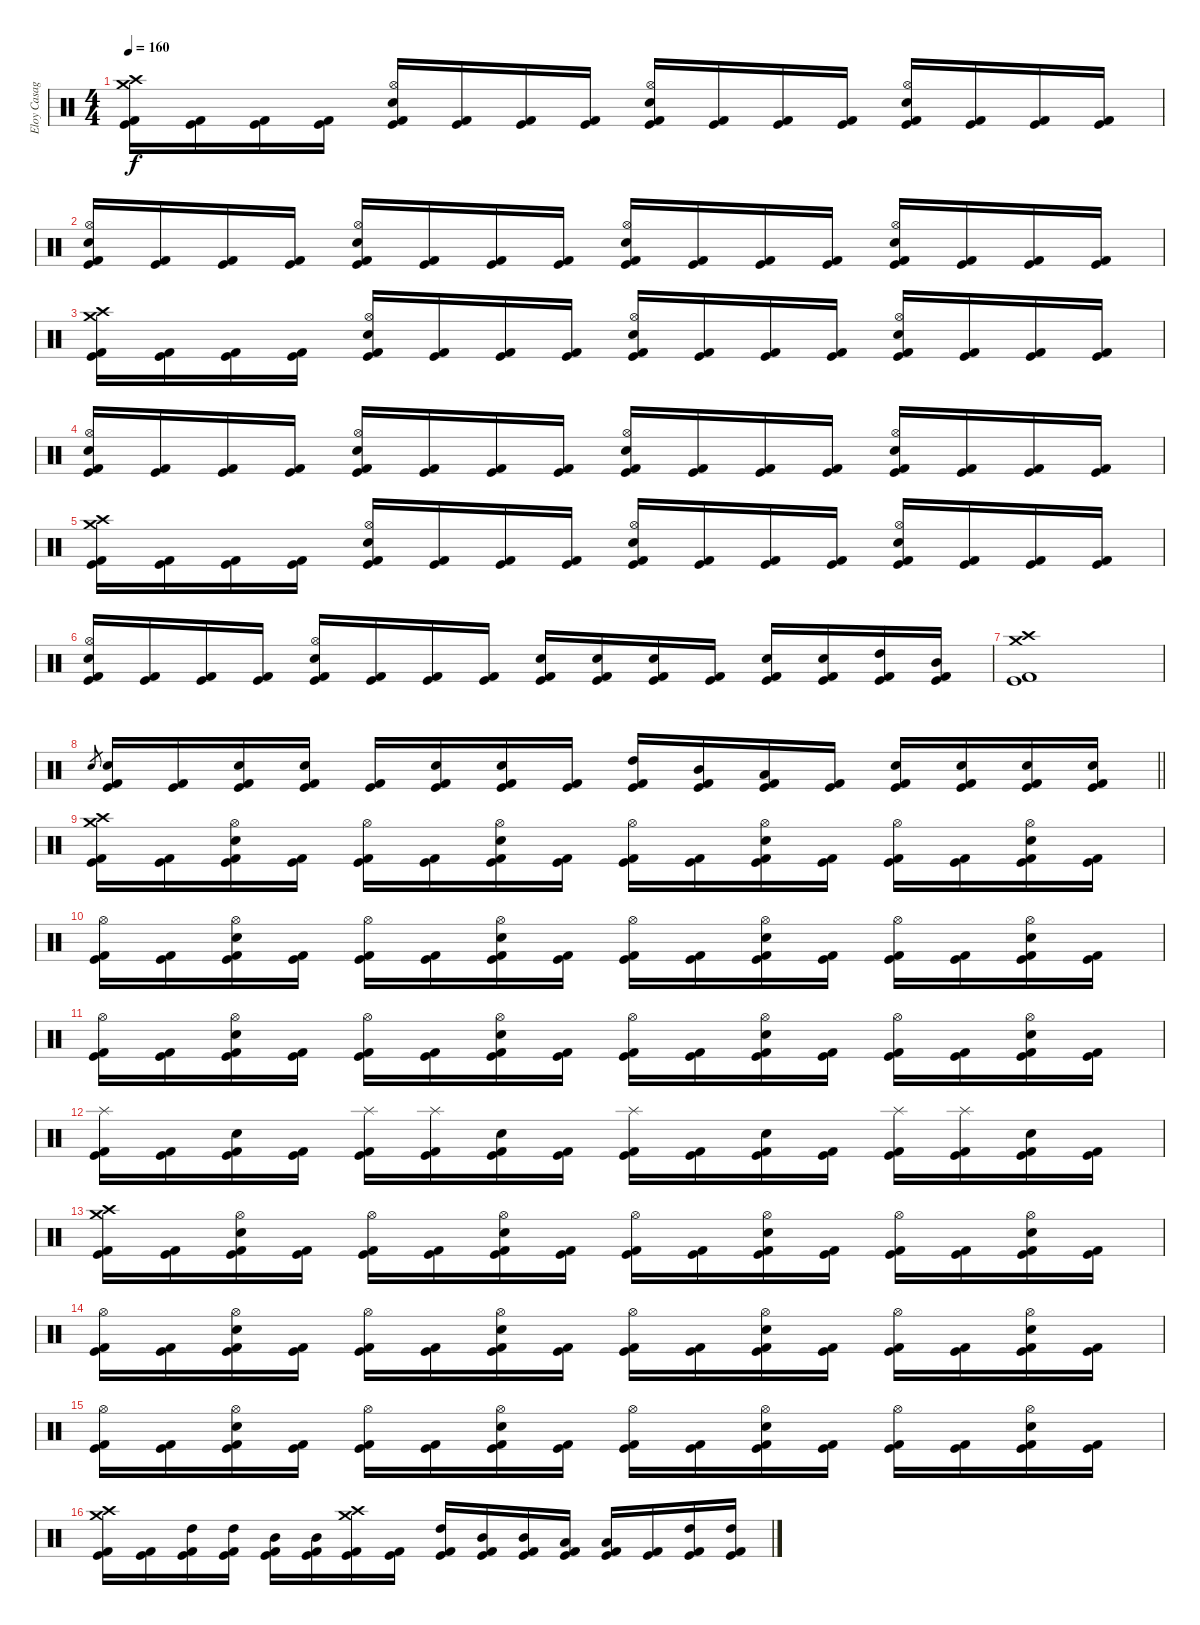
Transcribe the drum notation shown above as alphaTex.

\track ("Eloy Casagrande" "Eloy Casag") {instrument percussion}
\staff {score}
\articulation defaults
\ts (4 4)
\tempo 160
\clef neutral
\ks c
("Crash medium (hit)" "Crash high (hit)" "Kick (hit) 2" "Kick (hit)").16{dy f} ("Kick (hit) 2" "Kick (hit)").16 ("Kick (hit) 2" "Kick (hit)").16 ("Kick (hit) 2" "Kick (hit)").16 ("Hi-Hat (open)" "Electric Snare (hit)" "Kick (hit) 2" "Kick (hit)").16 ("Kick (hit) 2" "Kick (hit)").16 ("Kick (hit) 2" "Kick (hit)").16 ("Kick (hit) 2" "Kick (hit)").16 ("Hi-Hat (open)" "Electric Snare (hit)" "Kick (hit) 2" "Kick (hit)").16 ("Kick (hit) 2" "Kick (hit)").16 ("Kick (hit) 2" "Kick (hit)").16 ("Kick (hit) 2" "Kick (hit)").16 ("Hi-Hat (open)" "Electric Snare (hit)" "Kick (hit) 2" "Kick (hit)").16 ("Kick (hit) 2" "Kick (hit)").16 ("Kick (hit) 2" "Kick (hit)").16 ("Kick (hit) 2" "Kick (hit)").16 |
("Hi-Hat (open)" "Electric Snare (hit)" "Kick (hit) 2" "Kick (hit)").16 ("Kick (hit) 2" "Kick (hit)").16 ("Kick (hit) 2" "Kick (hit)").16 ("Kick (hit) 2" "Kick (hit)").16 ("Hi-Hat (open)" "Electric Snare (hit)" "Kick (hit) 2" "Kick (hit)").16 ("Kick (hit) 2" "Kick (hit)").16 ("Kick (hit) 2" "Kick (hit)").16 ("Kick (hit) 2" "Kick (hit)").16 ("Hi-Hat (open)" "Electric Snare (hit)" "Kick (hit) 2" "Kick (hit)").16 ("Kick (hit) 2" "Kick (hit)").16 ("Kick (hit) 2" "Kick (hit)").16 ("Kick (hit) 2" "Kick (hit)").16 ("Hi-Hat (open)" "Electric Snare (hit)" "Kick (hit) 2" "Kick (hit)").16 ("Kick (hit) 2" "Kick (hit)").16 ("Kick (hit) 2" "Kick (hit)").16 ("Kick (hit) 2" "Kick (hit)").16 |
("Crash medium (hit)" "Crash high (hit)" "Kick (hit) 2" "Kick (hit)").16 ("Kick (hit) 2" "Kick (hit)").16 ("Kick (hit) 2" "Kick (hit)").16 ("Kick (hit) 2" "Kick (hit)").16 ("Hi-Hat (open)" "Electric Snare (hit)" "Kick (hit) 2" "Kick (hit)").16 ("Kick (hit) 2" "Kick (hit)").16 ("Kick (hit) 2" "Kick (hit)").16 ("Kick (hit) 2" "Kick (hit)").16 ("Hi-Hat (open)" "Electric Snare (hit)" "Kick (hit) 2" "Kick (hit)").16 ("Kick (hit) 2" "Kick (hit)").16 ("Kick (hit) 2" "Kick (hit)").16 ("Kick (hit) 2" "Kick (hit)").16 ("Hi-Hat (open)" "Electric Snare (hit)" "Kick (hit) 2" "Kick (hit)").16 ("Kick (hit) 2" "Kick (hit)").16 ("Kick (hit) 2" "Kick (hit)").16 ("Kick (hit) 2" "Kick (hit)").16 |
("Hi-Hat (open)" "Electric Snare (hit)" "Kick (hit) 2" "Kick (hit)").16 ("Kick (hit) 2" "Kick (hit)").16 ("Kick (hit) 2" "Kick (hit)").16 ("Kick (hit) 2" "Kick (hit)").16 ("Hi-Hat (open)" "Electric Snare (hit)" "Kick (hit) 2" "Kick (hit)").16 ("Kick (hit) 2" "Kick (hit)").16 ("Kick (hit) 2" "Kick (hit)").16 ("Kick (hit) 2" "Kick (hit)").16 ("Hi-Hat (open)" "Electric Snare (hit)" "Kick (hit) 2" "Kick (hit)").16 ("Kick (hit) 2" "Kick (hit)").16 ("Kick (hit) 2" "Kick (hit)").16 ("Kick (hit) 2" "Kick (hit)").16 ("Hi-Hat (open)" "Electric Snare (hit)" "Kick (hit) 2" "Kick (hit)").16 ("Kick (hit) 2" "Kick (hit)").16 ("Kick (hit) 2" "Kick (hit)").16 ("Kick (hit) 2" "Kick (hit)").16 |
("Crash medium (hit)" "Crash high (hit)" "Kick (hit) 2" "Kick (hit)").16 ("Kick (hit) 2" "Kick (hit)").16 ("Kick (hit) 2" "Kick (hit)").16 ("Kick (hit) 2" "Kick (hit)").16 ("Hi-Hat (open)" "Electric Snare (hit)" "Kick (hit) 2" "Kick (hit)").16 ("Kick (hit) 2" "Kick (hit)").16 ("Kick (hit) 2" "Kick (hit)").16 ("Kick (hit) 2" "Kick (hit)").16 ("Hi-Hat (open)" "Electric Snare (hit)" "Kick (hit) 2" "Kick (hit)").16 ("Kick (hit) 2" "Kick (hit)").16 ("Kick (hit) 2" "Kick (hit)").16 ("Kick (hit) 2" "Kick (hit)").16 ("Hi-Hat (open)" "Electric Snare (hit)" "Kick (hit) 2" "Kick (hit)").16 ("Kick (hit) 2" "Kick (hit)").16 ("Kick (hit) 2" "Kick (hit)").16 ("Kick (hit) 2" "Kick (hit)").16 |
("Hi-Hat (open)" "Electric Snare (hit)" "Kick (hit) 2" "Kick (hit)").16 ("Kick (hit) 2" "Kick (hit)").16 ("Kick (hit) 2" "Kick (hit)").16 ("Kick (hit) 2" "Kick (hit)").16 ("Hi-Hat (open)" "Electric Snare (hit)" "Kick (hit) 2" "Kick (hit)").16 ("Kick (hit) 2" "Kick (hit)").16 ("Kick (hit) 2" "Kick (hit)").16 ("Kick (hit) 2" "Kick (hit)").16 ("Electric Snare (hit)" "Kick (hit) 2" "Kick (hit)").16 ("Electric Snare (hit)" "Kick (hit) 2" "Kick (hit)").16 ("Electric Snare (hit)" "Kick (hit) 2" "Kick (hit)").16 ("Kick (hit) 2" "Kick (hit)").16 ("Electric Snare (hit)" "Kick (hit) 2" "Kick (hit)").16 ("Electric Snare (hit)" "Kick (hit) 2" "Kick (hit)").16 ("High Tom (hit)" "Kick (hit) 2" "Kick (hit)").16 ("Mid Tom (hit)" "Kick (hit) 2" "Kick (hit)").16 |
("Crash medium (hit)" "Crash high (hit)" "Kick (hit) 2" "Kick (hit)").1 |
\barLineRight lightlight "Electric Snare (hit)".8{gr}
("Electric Snare (hit)" "Kick (hit) 2" "Kick (hit)").16 ("Kick (hit) 2" "Kick (hit)").16 ("Electric Snare (hit)" "Kick (hit) 2" "Kick (hit)").16 ("Electric Snare (hit)" "Kick (hit) 2" "Kick (hit)").16 ("Kick (hit) 2" "Kick (hit)").16 ("Electric Snare (hit)" "Kick (hit) 2" "Kick (hit)").16 ("Electric Snare (hit)" "Kick (hit) 2" "Kick (hit)").16 ("Kick (hit) 2" "Kick (hit)").16 ("High Tom (hit)" "Kick (hit) 2" "Kick (hit)").16 ("Mid Tom (hit)" "Kick (hit) 2" "Kick (hit)").16 ("Low Tom (hit)" "Kick (hit) 2" "Kick (hit)").16 ("Kick (hit) 2" "Kick (hit)").16 ("Electric Snare (hit)" "Kick (hit) 2" "Kick (hit)").16 ("Electric Snare (hit)" "Kick (hit) 2" "Kick (hit)").16 ("Electric Snare (hit)" "Kick (hit) 2" "Kick (hit)").16 ("Electric Snare (hit)" "Kick (hit) 2" "Kick (hit)").16 |
("Crash medium (hit)" "Crash high (hit)" "Kick (hit) 2" "Kick (hit)").16 ("Kick (hit) 2" "Kick (hit)").16 ("Hi-Hat (open)" "Electric Snare (hit)" "Kick (hit) 2" "Kick (hit)").16 ("Kick (hit) 2" "Kick (hit)").16 ("Hi-Hat (open)" "Kick (hit) 2" "Kick (hit)").16 ("Kick (hit) 2" "Kick (hit)").16 ("Hi-Hat (open)" "Electric Snare (hit)" "Kick (hit) 2" "Kick (hit)").16 ("Kick (hit) 2" "Kick (hit)").16 ("Hi-Hat (open)" "Kick (hit) 2" "Kick (hit)").16 ("Kick (hit) 2" "Kick (hit)").16 ("Hi-Hat (open)" "Electric Snare (hit)" "Kick (hit) 2" "Kick (hit)").16 ("Kick (hit) 2" "Kick (hit)").16 ("Hi-Hat (open)" "Kick (hit) 2" "Kick (hit)").16 ("Kick (hit) 2" "Kick (hit)").16 ("Hi-Hat (open)" "Electric Snare (hit)" "Kick (hit) 2" "Kick (hit)").16 ("Kick (hit) 2" "Kick (hit)").16 |
("Hi-Hat (open)" "Kick (hit) 2" "Kick (hit)").16 ("Kick (hit) 2" "Kick (hit)").16 ("Hi-Hat (open)" "Electric Snare (hit)" "Kick (hit) 2" "Kick (hit)").16 ("Kick (hit) 2" "Kick (hit)").16 ("Hi-Hat (open)" "Kick (hit) 2" "Kick (hit)").16 ("Kick (hit) 2" "Kick (hit)").16 ("Hi-Hat (open)" "Electric Snare (hit)" "Kick (hit) 2" "Kick (hit)").16 ("Kick (hit) 2" "Kick (hit)").16 ("Hi-Hat (open)" "Kick (hit) 2" "Kick (hit)").16 ("Kick (hit) 2" "Kick (hit)").16 ("Hi-Hat (open)" "Electric Snare (hit)" "Kick (hit) 2" "Kick (hit)").16 ("Kick (hit) 2" "Kick (hit)").16 ("Hi-Hat (open)" "Kick (hit) 2" "Kick (hit)").16 ("Kick (hit) 2" "Kick (hit)").16 ("Hi-Hat (open)" "Electric Snare (hit)" "Kick (hit) 2" "Kick (hit)").16 ("Kick (hit) 2" "Kick (hit)").16 |
("Hi-Hat (open)" "Kick (hit) 2" "Kick (hit)").16 ("Kick (hit) 2" "Kick (hit)").16 ("Hi-Hat (open)" "Electric Snare (hit)" "Kick (hit) 2" "Kick (hit)").16 ("Kick (hit) 2" "Kick (hit)").16 ("Hi-Hat (open)" "Kick (hit) 2" "Kick (hit)").16 ("Kick (hit) 2" "Kick (hit)").16 ("Hi-Hat (open)" "Electric Snare (hit)" "Kick (hit) 2" "Kick (hit)").16 ("Kick (hit) 2" "Kick (hit)").16 ("Hi-Hat (open)" "Kick (hit) 2" "Kick (hit)").16 ("Kick (hit) 2" "Kick (hit)").16 ("Hi-Hat (open)" "Electric Snare (hit)" "Kick (hit) 2" "Kick (hit)").16 ("Kick (hit) 2" "Kick (hit)").16 ("Hi-Hat (open)" "Kick (hit) 2" "Kick (hit)").16 ("Kick (hit) 2" "Kick (hit)").16 ("Hi-Hat (open)" "Electric Snare (hit)" "Kick (hit) 2" "Kick (hit)").16 ("Kick (hit) 2" "Kick (hit)").16 |
("Splash (hit)" "Kick (hit) 2" "Kick (hit)").16 ("Kick (hit) 2" "Kick (hit)").16 ("Electric Snare (hit)" "Kick (hit) 2" "Kick (hit)").16 ("Kick (hit) 2" "Kick (hit)").16 ("Splash (hit)" "Kick (hit) 2" "Kick (hit)").16 ("Splash (hit)" "Kick (hit) 2" "Kick (hit)").16 ("Electric Snare (hit)" "Kick (hit) 2" "Kick (hit)").16 ("Kick (hit) 2" "Kick (hit)").16 ("Splash (hit)" "Kick (hit) 2" "Kick (hit)").16 ("Kick (hit) 2" "Kick (hit)").16 ("Electric Snare (hit)" "Kick (hit) 2" "Kick (hit)").16 ("Kick (hit) 2" "Kick (hit)").16 ("Splash (hit)" "Kick (hit) 2" "Kick (hit)").16 ("Splash (hit)" "Kick (hit) 2" "Kick (hit)").16 ("Electric Snare (hit)" "Kick (hit) 2" "Kick (hit)").16 ("Kick (hit) 2" "Kick (hit)").16 |
("Crash medium (hit)" "Crash high (hit)" "Kick (hit) 2" "Kick (hit)").16 ("Kick (hit) 2" "Kick (hit)").16 ("Hi-Hat (open)" "Electric Snare (hit)" "Kick (hit) 2" "Kick (hit)").16 ("Kick (hit) 2" "Kick (hit)").16 ("Hi-Hat (open)" "Kick (hit) 2" "Kick (hit)").16 ("Kick (hit) 2" "Kick (hit)").16 ("Hi-Hat (open)" "Electric Snare (hit)" "Kick (hit) 2" "Kick (hit)").16 ("Kick (hit) 2" "Kick (hit)").16 ("Hi-Hat (open)" "Kick (hit) 2" "Kick (hit)").16 ("Kick (hit) 2" "Kick (hit)").16 ("Hi-Hat (open)" "Electric Snare (hit)" "Kick (hit) 2" "Kick (hit)").16 ("Kick (hit) 2" "Kick (hit)").16 ("Hi-Hat (open)" "Kick (hit) 2" "Kick (hit)").16 ("Kick (hit) 2" "Kick (hit)").16 ("Hi-Hat (open)" "Electric Snare (hit)" "Kick (hit) 2" "Kick (hit)").16 ("Kick (hit) 2" "Kick (hit)").16 |
("Hi-Hat (open)" "Kick (hit) 2" "Kick (hit)").16 ("Kick (hit) 2" "Kick (hit)").16 ("Hi-Hat (open)" "Electric Snare (hit)" "Kick (hit) 2" "Kick (hit)").16 ("Kick (hit) 2" "Kick (hit)").16 ("Hi-Hat (open)" "Kick (hit) 2" "Kick (hit)").16 ("Kick (hit) 2" "Kick (hit)").16 ("Hi-Hat (open)" "Electric Snare (hit)" "Kick (hit) 2" "Kick (hit)").16 ("Kick (hit) 2" "Kick (hit)").16 ("Hi-Hat (open)" "Kick (hit) 2" "Kick (hit)").16 ("Kick (hit) 2" "Kick (hit)").16 ("Hi-Hat (open)" "Electric Snare (hit)" "Kick (hit) 2" "Kick (hit)").16 ("Kick (hit) 2" "Kick (hit)").16 ("Hi-Hat (open)" "Kick (hit) 2" "Kick (hit)").16 ("Kick (hit) 2" "Kick (hit)").16 ("Hi-Hat (open)" "Electric Snare (hit)" "Kick (hit) 2" "Kick (hit)").16 ("Kick (hit) 2" "Kick (hit)").16 |
("Hi-Hat (open)" "Kick (hit) 2" "Kick (hit)").16 ("Kick (hit) 2" "Kick (hit)").16 ("Hi-Hat (open)" "Electric Snare (hit)" "Kick (hit) 2" "Kick (hit)").16 ("Kick (hit) 2" "Kick (hit)").16 ("Hi-Hat (open)" "Kick (hit) 2" "Kick (hit)").16 ("Kick (hit) 2" "Kick (hit)").16 ("Hi-Hat (open)" "Electric Snare (hit)" "Kick (hit) 2" "Kick (hit)").16 ("Kick (hit) 2" "Kick (hit)").16 ("Hi-Hat (open)" "Kick (hit) 2" "Kick (hit)").16 ("Kick (hit) 2" "Kick (hit)").16 ("Hi-Hat (open)" "Electric Snare (hit)" "Kick (hit) 2" "Kick (hit)").16 ("Kick (hit) 2" "Kick (hit)").16 ("Hi-Hat (open)" "Kick (hit) 2" "Kick (hit)").16 ("Kick (hit) 2" "Kick (hit)").16 ("Hi-Hat (open)" "Electric Snare (hit)" "Kick (hit) 2" "Kick (hit)").16 ("Kick (hit) 2" "Kick (hit)").16 |
("Crash medium (hit)" "Crash high (hit)" "Kick (hit) 2" "Kick (hit)").16 ("Kick (hit) 2" "Kick (hit)").16 ("High Tom (hit)" "Kick (hit) 2" "Kick (hit)").16 ("High Tom (hit)" "Kick (hit) 2" "Kick (hit)").16 ("Mid Tom (hit)" "Kick (hit) 2" "Kick (hit)").16 ("Mid Tom (hit)" "Kick (hit) 2" "Kick (hit)").16 ("Crash medium (hit)" "Crash high (hit)" "Kick (hit) 2" "Kick (hit)").16 ("Kick (hit) 2" "Kick (hit)").16 ("High Tom (hit)" "Kick (hit) 2" "Kick (hit)").16 ("Mid Tom (hit)" "Kick (hit) 2" "Kick (hit)").16 ("Mid Tom (hit)" "Kick (hit) 2" "Kick (hit)").16 ("Low Tom (hit)" "Kick (hit) 2" "Kick (hit)").16 ("Low Tom (hit)" "Kick (hit) 2" "Kick (hit)").16 ("Kick (hit) 2" "Kick (hit)").16 ("High Tom (hit)" "Kick (hit) 2" "Kick (hit)").16 ("High Tom (hit)" "Kick (hit) 2" "Kick (hit)").16
